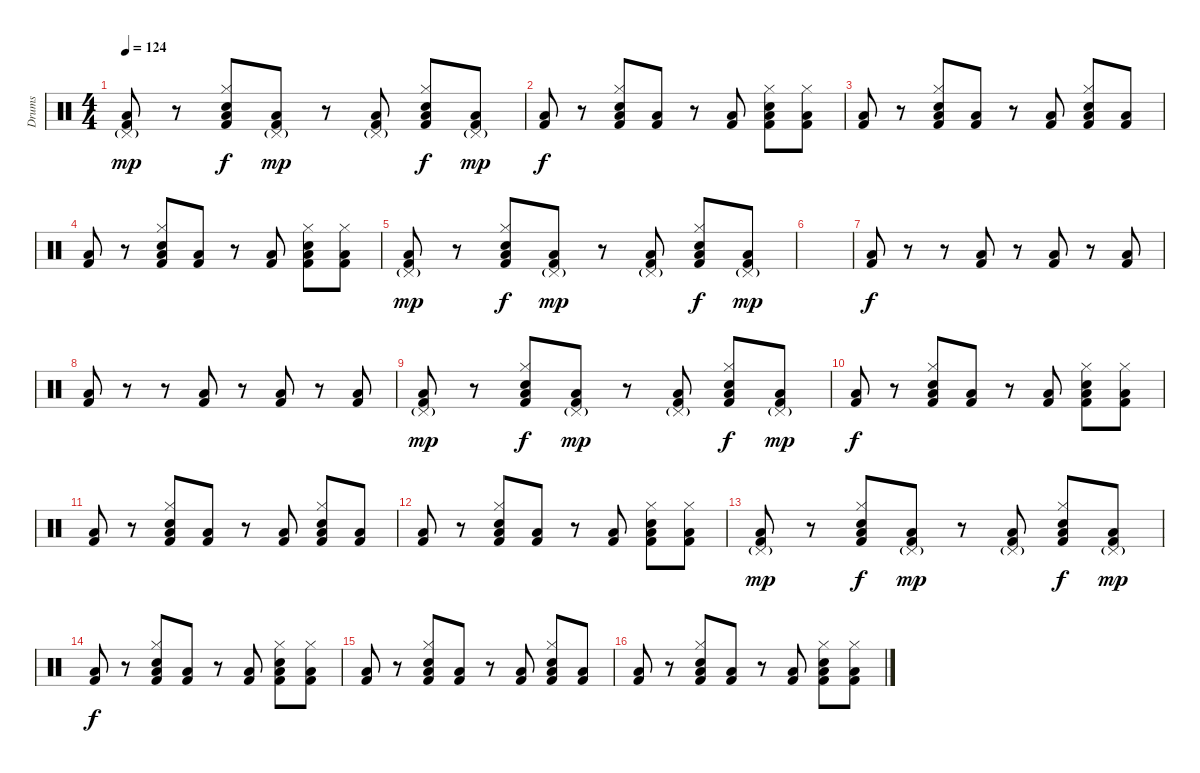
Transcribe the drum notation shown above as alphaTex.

\track ("Drums" "Drums") {instrument percussion}
\staff {score}
\articulation defaults
\ts (4 4)
\tempo 124
\clef neutral
\ks c
("Pedal Hi-Hat (hit)"{g} "Kick (hit) 2" "Low Floor Tom (hit)").8{dy mp} r.8 ("Hi-Hat (closed)" "Electric Snare (hit)" "Kick (hit) 2" "Low Floor Tom (hit)").8{dy f} ("Pedal Hi-Hat (hit)"{g} "Kick (hit) 2" "Low Floor Tom (hit)").8{dy mp} r.8 ("Pedal Hi-Hat (hit)"{g} "Kick (hit) 2" "Low Floor Tom (hit)").8 ("Hi-Hat (closed)" "Electric Snare (hit)" "Kick (hit) 2" "Low Floor Tom (hit)").8{dy f} ("Pedal Hi-Hat (hit)"{g} "Kick (hit) 2" "Low Floor Tom (hit)").8{dy mp} |
("Kick (hit) 2" "Low Floor Tom (hit)").8{dy f} r.8 ("Hi-Hat (closed)" "Electric Snare (hit)" "Kick (hit) 2" "Low Floor Tom (hit)").8 ("Kick (hit) 2" "Low Floor Tom (hit)").8 r.8 ("Kick (hit) 2" "Low Floor Tom (hit)").8 ("Hi-Hat (closed)" "Electric Snare (hit)" "Kick (hit) 2" "Low Floor Tom (hit)").8 ("Hi-Hat (closed)" "Kick (hit) 2" "Low Floor Tom (hit)").8 |
("Kick (hit) 2" "Low Floor Tom (hit)").8 r.8 ("Hi-Hat (closed)" "Electric Snare (hit)" "Kick (hit) 2" "Low Floor Tom (hit)").8 ("Kick (hit) 2" "Low Floor Tom (hit)").8 r.8 ("Kick (hit) 2" "Low Floor Tom (hit)").8 ("Hi-Hat (closed)" "Electric Snare (hit)" "Kick (hit) 2" "Low Floor Tom (hit)").8 ("Kick (hit) 2" "Low Floor Tom (hit)").8 |
("Kick (hit) 2" "Low Floor Tom (hit)").8 r.8 ("Hi-Hat (closed)" "Electric Snare (hit)" "Kick (hit) 2" "Low Floor Tom (hit)").8 ("Kick (hit) 2" "Low Floor Tom (hit)").8 r.8 ("Kick (hit) 2" "Low Floor Tom (hit)").8 ("Hi-Hat (closed)" "Electric Snare (hit)" "Kick (hit) 2" "Low Floor Tom (hit)").8 ("Hi-Hat (closed)" "Kick (hit) 2" "Low Floor Tom (hit)").8 |
("Pedal Hi-Hat (hit)"{g} "Kick (hit) 2" "Low Floor Tom (hit)").8{dy mp} r.8 ("Hi-Hat (closed)" "Electric Snare (hit)" "Kick (hit) 2" "Low Floor Tom (hit)").8{dy f} ("Pedal Hi-Hat (hit)"{g} "Kick (hit) 2" "Low Floor Tom (hit)").8{dy mp} r.8 ("Pedal Hi-Hat (hit)"{g} "Kick (hit) 2" "Low Floor Tom (hit)").8 ("Hi-Hat (closed)" "Electric Snare (hit)" "Kick (hit) 2" "Low Floor Tom (hit)").8{dy f} ("Pedal Hi-Hat (hit)"{g} "Kick (hit) 2" "Low Floor Tom (hit)").8{dy mp} |
|
("Kick (hit) 2" "Low Floor Tom (hit)").8{dy f} r.8 r.8 ("Kick (hit) 2" "Low Floor Tom (hit)").8 r.8 ("Kick (hit) 2" "Low Floor Tom (hit)").8 r.8 ("Kick (hit) 2" "Low Floor Tom (hit)").8 |
("Kick (hit) 2" "Low Floor Tom (hit)").8 r.8 r.8 ("Kick (hit) 2" "Low Floor Tom (hit)").8 r.8 ("Kick (hit) 2" "Low Floor Tom (hit)").8 r.8 ("Kick (hit) 2" "Low Floor Tom (hit)").8 |
("Pedal Hi-Hat (hit)"{g} "Kick (hit) 2" "Low Floor Tom (hit)").8{dy mp} r.8 ("Hi-Hat (closed)" "Electric Snare (hit)" "Kick (hit) 2" "Low Floor Tom (hit)").8{dy f} ("Pedal Hi-Hat (hit)"{g} "Kick (hit) 2" "Low Floor Tom (hit)").8{dy mp} r.8 ("Pedal Hi-Hat (hit)"{g} "Kick (hit) 2" "Low Floor Tom (hit)").8 ("Hi-Hat (closed)" "Electric Snare (hit)" "Kick (hit) 2" "Low Floor Tom (hit)").8{dy f} ("Pedal Hi-Hat (hit)"{g} "Kick (hit) 2" "Low Floor Tom (hit)").8{dy mp} |
("Kick (hit) 2" "Low Floor Tom (hit)").8{dy f} r.8 ("Hi-Hat (closed)" "Electric Snare (hit)" "Kick (hit) 2" "Low Floor Tom (hit)").8 ("Kick (hit) 2" "Low Floor Tom (hit)").8 r.8 ("Kick (hit) 2" "Low Floor Tom (hit)").8 ("Hi-Hat (closed)" "Electric Snare (hit)" "Kick (hit) 2" "Low Floor Tom (hit)").8 ("Hi-Hat (closed)" "Kick (hit) 2" "Low Floor Tom (hit)").8 |
("Kick (hit) 2" "Low Floor Tom (hit)").8 r.8 ("Hi-Hat (closed)" "Electric Snare (hit)" "Kick (hit) 2" "Low Floor Tom (hit)").8 ("Kick (hit) 2" "Low Floor Tom (hit)").8 r.8 ("Kick (hit) 2" "Low Floor Tom (hit)").8 ("Hi-Hat (closed)" "Electric Snare (hit)" "Kick (hit) 2" "Low Floor Tom (hit)").8 ("Kick (hit) 2" "Low Floor Tom (hit)").8 |
("Kick (hit) 2" "Low Floor Tom (hit)").8 r.8 ("Hi-Hat (closed)" "Electric Snare (hit)" "Kick (hit) 2" "Low Floor Tom (hit)").8 ("Kick (hit) 2" "Low Floor Tom (hit)").8 r.8 ("Kick (hit) 2" "Low Floor Tom (hit)").8 ("Hi-Hat (closed)" "Electric Snare (hit)" "Kick (hit) 2" "Low Floor Tom (hit)").8 ("Hi-Hat (closed)" "Kick (hit) 2" "Low Floor Tom (hit)").8 |
("Pedal Hi-Hat (hit)"{g} "Kick (hit) 2" "Low Floor Tom (hit)").8{dy mp} r.8 ("Hi-Hat (closed)" "Electric Snare (hit)" "Kick (hit) 2" "Low Floor Tom (hit)").8{dy f} ("Pedal Hi-Hat (hit)"{g} "Kick (hit) 2" "Low Floor Tom (hit)").8{dy mp} r.8 ("Pedal Hi-Hat (hit)"{g} "Kick (hit) 2" "Low Floor Tom (hit)").8 ("Hi-Hat (closed)" "Electric Snare (hit)" "Kick (hit) 2" "Low Floor Tom (hit)").8{dy f} ("Pedal Hi-Hat (hit)"{g} "Kick (hit) 2" "Low Floor Tom (hit)").8{dy mp} |
("Kick (hit) 2" "Low Floor Tom (hit)").8{dy f} r.8 ("Hi-Hat (closed)" "Electric Snare (hit)" "Kick (hit) 2" "Low Floor Tom (hit)").8 ("Kick (hit) 2" "Low Floor Tom (hit)").8 r.8 ("Kick (hit) 2" "Low Floor Tom (hit)").8 ("Hi-Hat (closed)" "Electric Snare (hit)" "Kick (hit) 2" "Low Floor Tom (hit)").8 ("Hi-Hat (closed)" "Kick (hit) 2" "Low Floor Tom (hit)").8 |
("Kick (hit) 2" "Low Floor Tom (hit)").8 r.8 ("Hi-Hat (closed)" "Electric Snare (hit)" "Kick (hit) 2" "Low Floor Tom (hit)").8 ("Kick (hit) 2" "Low Floor Tom (hit)").8 r.8 ("Kick (hit) 2" "Low Floor Tom (hit)").8 ("Hi-Hat (closed)" "Electric Snare (hit)" "Kick (hit) 2" "Low Floor Tom (hit)").8 ("Kick (hit) 2" "Low Floor Tom (hit)").8 |
("Kick (hit) 2" "Low Floor Tom (hit)").8 r.8 ("Hi-Hat (closed)" "Electric Snare (hit)" "Kick (hit) 2" "Low Floor Tom (hit)").8 ("Kick (hit) 2" "Low Floor Tom (hit)").8 r.8 ("Kick (hit) 2" "Low Floor Tom (hit)").8 ("Hi-Hat (closed)" "Electric Snare (hit)" "Kick (hit) 2" "Low Floor Tom (hit)").8 ("Hi-Hat (closed)" "Kick (hit) 2" "Low Floor Tom (hit)").8
